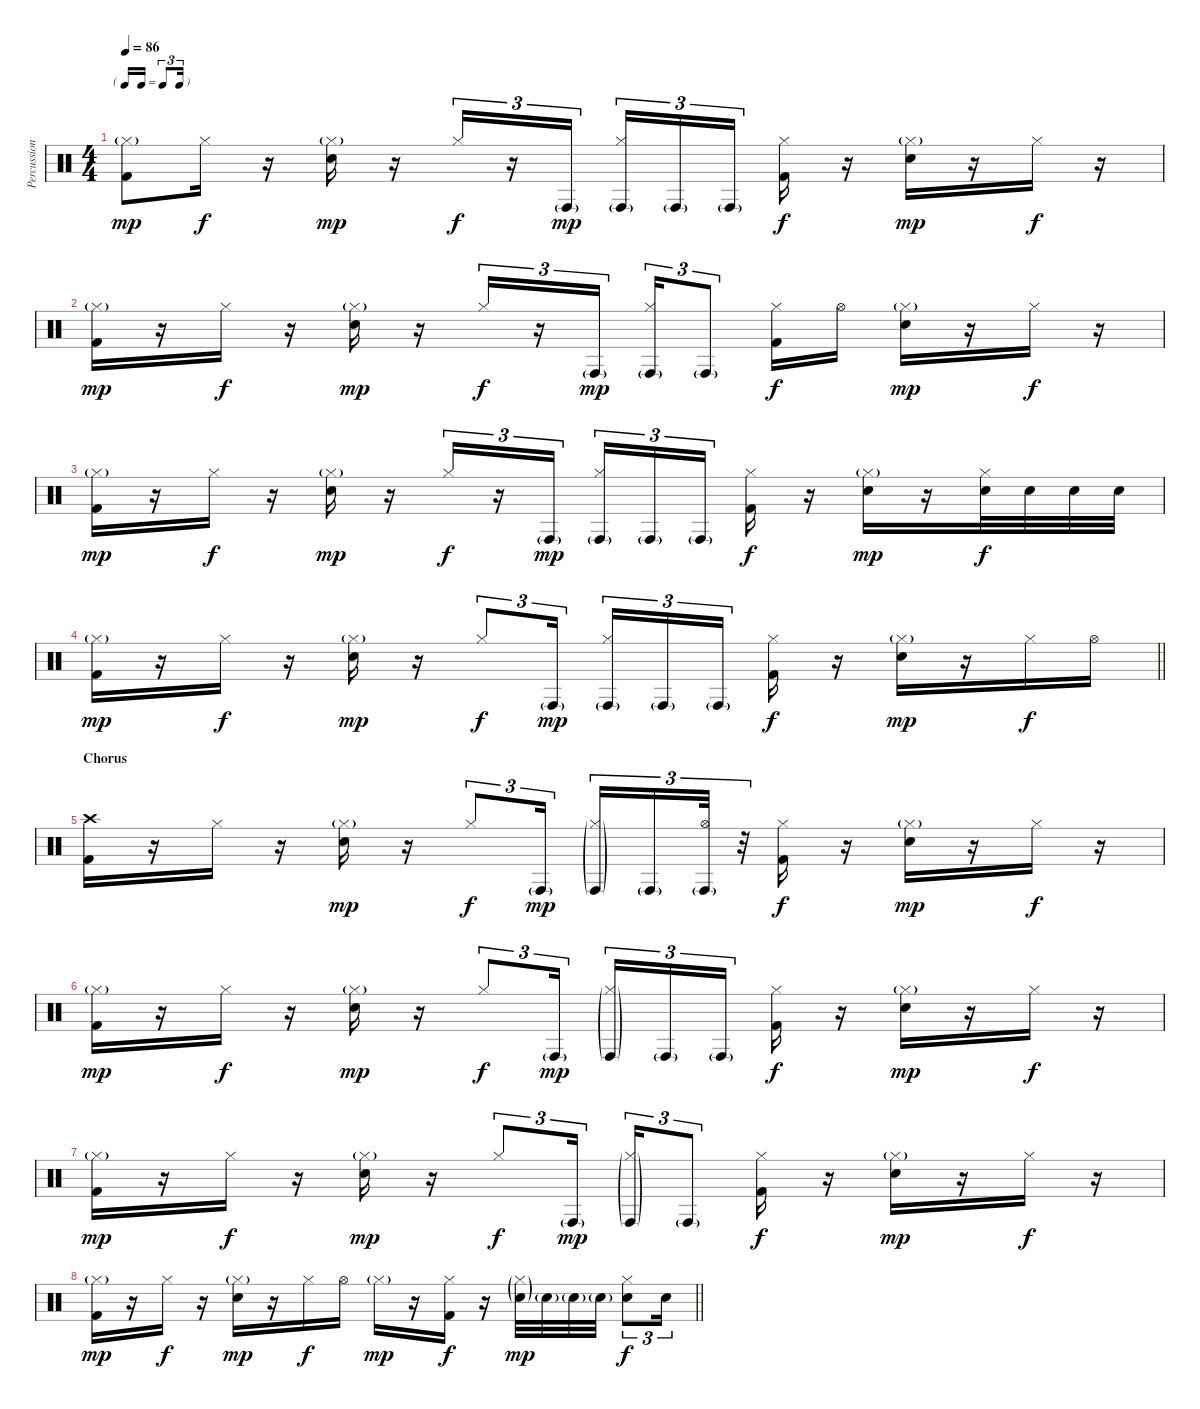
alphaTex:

\track ("Percussion" "Percussion") {instrument percussion}
\staff {score}
\articulation defaults
\ts (4 4)
\tf triplet16th
\tempo 86
\clef neutral
\ks c
("Hi-Hat (closed)"{g} "Kick (hit) 2").8{dy mp} "Hi-Hat (closed)".16{dy f} r.16 ("Hi-Hat (closed)"{g} "Electric Snare (hit)").16{dy mp} r.16 "Hi-Hat (closed)".16{tu (3 2) dy f} r.16{tu (3 2)} "Conga high (hit)"{g}.16{tu (3 2) dy mp} ("Conga high (hit)"{g} "Hi-Hat (closed)").16{tu (3 2)} "Conga high (hit)"{g}.16{tu (3 2)} "Conga high (hit)"{g}.16{tu (3 2) beam splitsecondary} ("Hi-Hat (closed)" "Kick (hit) 2").16{dy f} r.16 ("Hi-Hat (closed)"{g} "Electric Snare (hit)").16{dy mp} r.16 "Hi-Hat (closed)".16{dy f} r.16 |
("Hi-Hat (closed)"{g} "Kick (hit) 2").16{dy mp} r.16 "Hi-Hat (closed)".16{dy f} r.16 ("Hi-Hat (closed)"{g} "Electric Snare (hit)").16{dy mp} r.16 "Hi-Hat (closed)".16{tu (3 2) dy f} r.16{tu (3 2)} "Conga high (hit)"{g}.16{tu (3 2) dy mp} ("Conga high (hit)"{g} "Hi-Hat (closed)").16{tu (3 2)} "Conga high (hit)"{g}.8{tu (3 2)} ("Hi-Hat (closed)" "Kick (hit) 2").16{dy f} "Hi-Hat (open)".16 ("Hi-Hat (closed)"{g} "Electric Snare (hit)").16{dy mp} r.16 "Hi-Hat (closed)".16{dy f} r.16 |
("Hi-Hat (closed)"{g} "Kick (hit) 2").16{dy mp} r.16 "Hi-Hat (closed)".16{dy f} r.16 ("Hi-Hat (closed)"{g} "Electric Snare (hit)").16{dy mp} r.16 "Hi-Hat (closed)".16{tu (3 2) dy f} r.16{tu (3 2)} "Conga high (hit)"{g}.16{tu (3 2) dy mp} ("Conga high (hit)"{g} "Hi-Hat (closed)").16{tu (3 2)} "Conga high (hit)"{g}.16{tu (3 2)} "Conga high (hit)"{g}.16{tu (3 2) beam splitsecondary} ("Hi-Hat (closed)" "Kick (hit) 2").16{dy f} r.16 ("Hi-Hat (closed)"{g} "Electric Snare (hit)").16{dy mp} r.16 ("Hi-Hat (closed)" "Electric Snare (hit)").32{dy f} "Electric Snare (hit)".32 "Electric Snare (hit)".32 "Electric Snare (hit)".32 |
\barLineRight lightlight
("Hi-Hat (closed)"{g} "Kick (hit) 2").16{dy mp} r.16 "Hi-Hat (closed)".16{dy f} r.16 ("Hi-Hat (closed)"{g} "Electric Snare (hit)").16{dy mp} r.16 "Hi-Hat (closed)".8{tu (3 2) dy f} "Conga high (hit)"{g}.16{tu (3 2) dy mp} ("Conga high (hit)"{g} "Hi-Hat (closed)").16{tu (3 2)} "Conga high (hit)"{g}.16{tu (3 2)} "Conga high (hit)"{g}.16{tu (3 2) beam splitsecondary} ("Hi-Hat (closed)" "Kick (hit) 2").16{dy f} r.16 ("Hi-Hat (closed)"{g} "Electric Snare (hit)").16{dy mp} r.16 "Hi-Hat (closed)".16{dy f} "Hi-Hat (open)".16 |
\section ("" "Chorus")
("Crash high (hit)" "Kick (hit) 2").16 r.16 "Hi-Hat (closed)".16 r.16 ("Hi-Hat (closed)"{g} "Electric Snare (hit)").16{dy mp} r.16 "Hi-Hat (closed)".8{tu (3 2) dy f} "Conga high (hit)"{g}.16{tu (3 2) dy mp} ("Conga high (hit)"{g} "Hi-Hat (closed)"{g}).16{tu (3 2)} "Conga high (hit)"{g}.16{tu (3 2)} ("Conga high (hit)"{g} "Hi-Hat (open)").32{tu (3 2)} r.32{tu (3 2)} ("Hi-Hat (closed)" "Kick (hit) 2").16{dy f} r.16 ("Hi-Hat (closed)"{g} "Electric Snare (hit)").16{dy mp} r.16 "Hi-Hat (closed)".16{dy f} r.16 |
("Hi-Hat (closed)"{g} "Kick (hit) 2").16{dy mp} r.16 "Hi-Hat (closed)".16{dy f} r.16 ("Hi-Hat (closed)"{g} "Electric Snare (hit)").16{dy mp} r.16 "Hi-Hat (closed)".8{tu (3 2) dy f} "Conga high (hit)"{g}.16{tu (3 2) dy mp} ("Conga high (hit)"{g} "Hi-Hat (closed)"{g}).16{tu (3 2)} "Conga high (hit)"{g}.16{tu (3 2)} "Conga high (hit)"{g}.16{tu (3 2) beam splitsecondary} ("Hi-Hat (closed)" "Kick (hit) 2").16{dy f} r.16 ("Hi-Hat (closed)"{g} "Electric Snare (hit)").16{dy mp} r.16 "Hi-Hat (closed)".16{dy f} r.16 |
("Hi-Hat (closed)"{g} "Kick (hit) 2").16{dy mp} r.16 "Hi-Hat (closed)".16{dy f} r.16 ("Hi-Hat (closed)"{g} "Electric Snare (hit)").16{dy mp} r.16 "Hi-Hat (closed)".8{tu (3 2) dy f} "Conga high (hit)"{g}.16{tu (3 2) dy mp} ("Conga high (hit)"{g} "Hi-Hat (closed)"{g}).16{tu (3 2)} "Conga high (hit)"{g}.8{tu (3 2)} ("Hi-Hat (closed)" "Kick (hit) 2").16{dy f} r.16 ("Hi-Hat (closed)"{g} "Electric Snare (hit)").16{dy mp} r.16 "Hi-Hat (closed)".16{dy f} r.16 |
\barLineRight lightlight
("Hi-Hat (closed)"{g} "Kick (hit) 2").16{dy mp} r.16 "Hi-Hat (closed)".16{dy f} r.16 ("Hi-Hat (closed)"{g} "Electric Snare (hit)").16{dy mp} r.16 "Hi-Hat (closed)".16{dy f} "Hi-Hat (open)".16 "Hi-Hat (closed)"{g}.16{dy mp} r.16 ("Hi-Hat (closed)" "Kick (hit) 2").16{dy f} r.16 ("Hi-Hat (closed)"{g} "Electric Snare (hit)"{g}).32{dy mp} "Electric Snare (hit)"{g}.32 "Electric Snare (hit)"{g}.32 "Electric Snare (hit)"{g}.32 ("Hi-Hat (closed)" "Electric Snare (hit)").8{tu (3 2) dy f} "Electric Snare (hit)".16{tu (3 2)}
